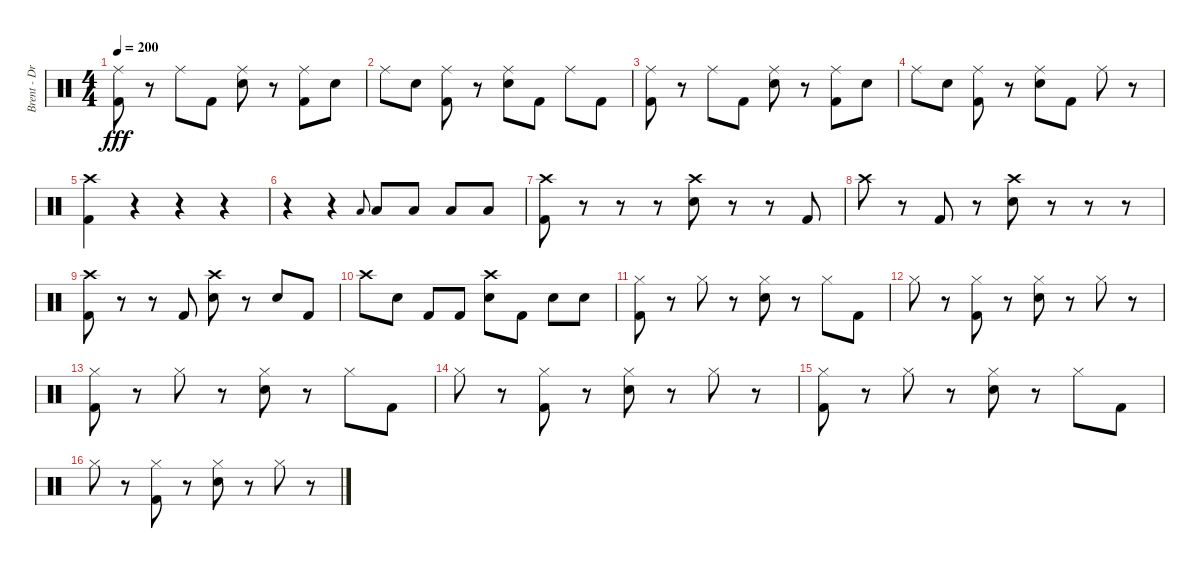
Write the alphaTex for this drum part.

\track ("Brent - Drums" "Brent - Dr") {instrument percussion}
\staff {score}
\articulation defaults
\ts (4 4)
\tempo 200
\clef neutral
\ks c
("Ride (middle)" "Kick (hit) 2").8{dy fff} r.8 "Ride (middle)".8 "Kick (hit) 2".8 ("Ride (middle)" "Snare (hit) 2").8 r.8 ("Ride (middle)" "Kick (hit) 2").8 "Snare (hit) 2".8 |
"Ride (middle)".8 "Snare (hit) 2".8 ("Ride (middle)" "Kick (hit) 2").8 r.8 ("Ride (middle)" "Snare (hit) 2").8 "Kick (hit) 2".8 "Ride (middle)".8 "Kick (hit) 2".8 |
("Ride (middle)" "Kick (hit) 2").8 r.8 "Ride (middle)".8 "Kick (hit) 2".8 ("Ride (middle)" "Snare (hit) 2").8 r.8 ("Ride (middle)" "Kick (hit) 2").8 "Snare (hit) 2".8 |
"Ride (middle)".8 "Snare (hit) 2".8 ("Ride (middle)" "Kick (hit) 2").8 r.8 ("Ride (middle)" "Snare (hit) 2").8 "Kick (hit) 2".8 "Ride (middle)".8 r.8 |
("Crash high (hit)" "Kick (hit) 2").4 r.4 r.4 r.4 |
r.4 r.4 "Low Tom (hit)".8{gr onbeat} "Low Tom (hit)".8 "Low Tom (hit)".8 "Low Floor Tom (hit)".8 "Low Floor Tom (hit)".8 |
("Crash high (hit)" "Kick (hit) 2").8 r.8 r.8 r.8 ("Crash high (hit)" "Snare (hit) 2").8 r.8 r.8 "Kick (hit) 2".8 |
"Crash high (hit)".8 r.8 "Kick (hit) 2".8 r.8 ("Crash high (hit)" "Snare (hit) 2").8 r.8 r.8 r.8 |
("Crash high (hit)" "Kick (hit) 2").8 r.8 r.8 "Kick (hit) 2".8 ("Crash high (hit)" "Snare (hit) 2").8 r.8 "Snare (hit) 2".8 "Kick (hit) 2".8 |
"Crash high (hit)".8 "Snare (hit) 2".8 "Kick (hit) 2".8 "Kick (hit) 2".8 ("Crash high (hit)" "Snare (hit) 2").8 "Kick (hit) 2".8 "Snare (hit) 2".8 "Snare (hit) 2".8 |
("Hi-Hat (closed)" "Kick (hit) 2").8 r.8 "Hi-Hat (closed)".8 r.8 ("Hi-Hat (closed)" "Snare (hit) 2").8 r.8 "Hi-Hat (closed)".8 "Kick (hit) 2".8 |
"Hi-Hat (closed)".8 r.8 ("Hi-Hat (closed)" "Kick (hit) 2").8 r.8 ("Hi-Hat (closed)" "Snare (hit) 2").8 r.8 "Hi-Hat (closed)".8 r.8 |
("Hi-Hat (closed)" "Kick (hit) 2").8 r.8 "Hi-Hat (closed)".8 r.8 ("Hi-Hat (closed)" "Snare (hit) 2").8 r.8 "Hi-Hat (closed)".8 "Kick (hit) 2".8 |
"Hi-Hat (closed)".8 r.8 ("Hi-Hat (closed)" "Kick (hit) 2").8 r.8 ("Hi-Hat (closed)" "Snare (hit) 2").8 r.8 "Hi-Hat (closed)".8 r.8 |
("Hi-Hat (closed)" "Kick (hit) 2").8 r.8 "Hi-Hat (closed)".8 r.8 ("Hi-Hat (closed)" "Snare (hit) 2").8 r.8 "Hi-Hat (closed)".8 "Kick (hit) 2".8 |
"Hi-Hat (closed)".8 r.8 ("Hi-Hat (closed)" "Kick (hit) 2").8 r.8 ("Hi-Hat (closed)" "Snare (hit) 2").8 r.8 "Hi-Hat (closed)".8 r.8
